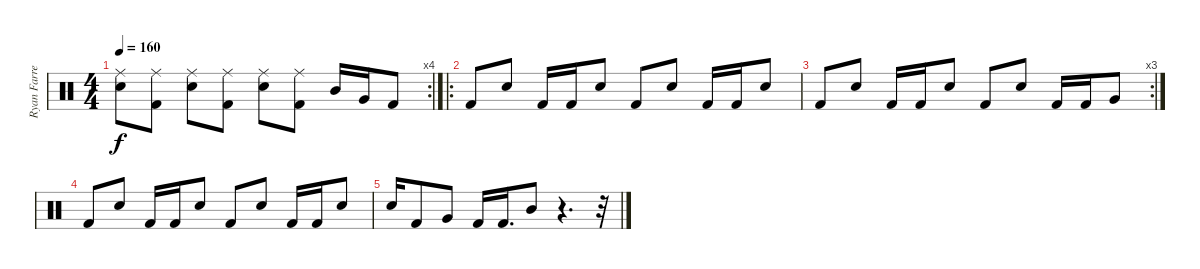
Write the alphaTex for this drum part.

\track ("Ryan Farrell" "Ryan Farre") {instrument percussion}
\staff {score}
\articulation defaults
\rc 4
\ts (4 4)
\tempo 160
\clef neutral
\ks c
("Ride (middle)" "Snare (hit) 2").8{dy f} ("Ride (middle)" "Kick (hit) 2").8 ("Ride (middle)" "Snare (hit) 2").8 ("Ride (middle)" "Kick (hit) 2").8 ("Ride (middle)" "Snare (hit) 2").8 ("Ride (middle)" "Kick (hit) 2").8 "Mid Tom (hit)".16 "Very Low Tom (hit)".16 "Kick (hit) 2".8 |
\ro "Kick (hit) 2".8 "Snare (hit) 2".8 "Kick (hit) 2".16 "Kick (hit) 2".16 "Snare (hit) 2".8 "Kick (hit) 2".8 "Snare (hit) 2".8 "Kick (hit) 2".16 "Kick (hit) 2".16 "Snare (hit) 2".8
|
\rc 3 "Kick (hit) 2".8 "Snare (hit) 2".8 "Kick (hit) 2".16 "Kick (hit) 2".16 "Snare (hit) 2".8 "Kick (hit) 2".8 "Snare (hit) 2".8 "Kick (hit) 2".16 "Kick (hit) 2".16 "Very Low Tom (hit)".8
|
"Kick (hit) 2".8 "Snare (hit) 2".8 "Kick (hit) 2".16 "Kick (hit) 2".16 "Snare (hit) 2".8 "Kick (hit) 2".8 "Snare (hit) 2".8 "Kick (hit) 2".16 "Kick (hit) 2".16 "Snare (hit) 2".8 |
"Snare (hit) 2".16 "Kick (hit) 2".8 "Very Low Tom (hit)".8 "Kick (hit) 2".16 "Kick (hit) 2".16{d} "Mid Tom (hit)".8 r.4{d} r.32
